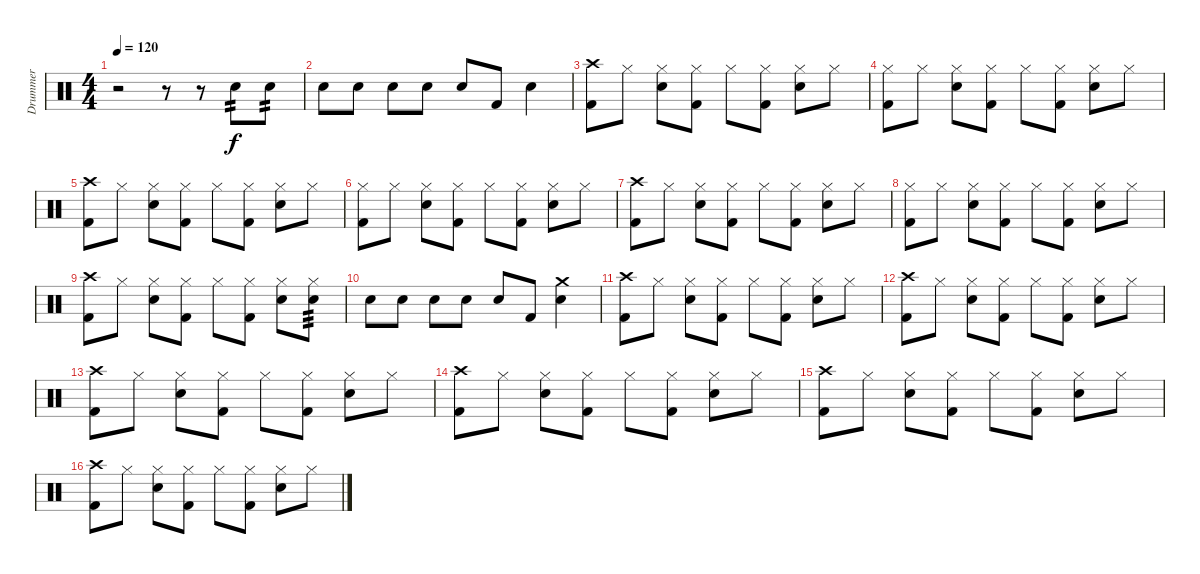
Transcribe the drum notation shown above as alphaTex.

\track ("Drummer" "Drummer") {instrument percussion}
\staff {score}
\articulation defaults
\ts (4 4)
\tempo 120
\clef neutral
\ks c
r.2{dy f} r.8 r.8 "Electric Snare (hit)".8{tp 2} "Electric Snare (hit)".8{tp 2} |
"Electric Snare (hit)".8 "Electric Snare (hit)".8 "Electric Snare (hit)".8 "Electric Snare (hit)".8 "Electric Snare (hit)".8 "Kick (hit) 2".8 "Electric Snare (hit)".4 |
("Kick (hit) 2" "Crash high (hit)").8 "Hi-Hat (closed)".8 ("Electric Snare (hit)" "Hi-Hat (closed)").8 ("Kick (hit) 2" "Hi-Hat (closed)").8 "Hi-Hat (closed)".8 ("Kick (hit) 2" "Hi-Hat (closed)").8 ("Electric Snare (hit)" "Hi-Hat (closed)").8 "Hi-Hat (closed)".8 |
("Kick (hit) 2" "Hi-Hat (closed)").8 "Hi-Hat (closed)".8 ("Electric Snare (hit)" "Hi-Hat (closed)").8 ("Kick (hit) 2" "Hi-Hat (closed)").8 "Hi-Hat (closed)".8 ("Kick (hit) 2" "Hi-Hat (closed)").8 ("Electric Snare (hit)" "Hi-Hat (closed)").8 "Hi-Hat (closed)".8 |
("Kick (hit) 2" "Crash high (hit)").8 "Hi-Hat (closed)".8 ("Electric Snare (hit)" "Hi-Hat (closed)").8 ("Kick (hit) 2" "Hi-Hat (closed)").8 "Hi-Hat (closed)".8 ("Kick (hit) 2" "Hi-Hat (closed)").8 ("Electric Snare (hit)" "Hi-Hat (closed)").8 "Hi-Hat (closed)".8 |
("Kick (hit) 2" "Hi-Hat (closed)").8 "Hi-Hat (closed)".8 ("Electric Snare (hit)" "Hi-Hat (closed)").8 ("Kick (hit) 2" "Hi-Hat (closed)").8 "Hi-Hat (closed)".8 ("Kick (hit) 2" "Hi-Hat (closed)").8 ("Electric Snare (hit)" "Hi-Hat (closed)").8 "Hi-Hat (closed)".8 |
("Kick (hit) 2" "Crash high (hit)").8 "Hi-Hat (closed)".8 ("Electric Snare (hit)" "Hi-Hat (closed)").8 ("Kick (hit) 2" "Hi-Hat (closed)").8 "Hi-Hat (closed)".8 ("Kick (hit) 2" "Hi-Hat (closed)").8 ("Electric Snare (hit)" "Hi-Hat (closed)").8 "Hi-Hat (closed)".8 |
("Kick (hit) 2" "Hi-Hat (closed)").8 "Hi-Hat (closed)".8 ("Electric Snare (hit)" "Hi-Hat (closed)").8 ("Kick (hit) 2" "Hi-Hat (closed)").8 "Hi-Hat (closed)".8 ("Kick (hit) 2" "Hi-Hat (closed)").8 ("Electric Snare (hit)" "Hi-Hat (closed)").8 "Hi-Hat (closed)".8 |
("Kick (hit) 2" "Crash high (hit)").8 "Hi-Hat (closed)".8 ("Electric Snare (hit)" "Hi-Hat (closed)").8 ("Kick (hit) 2" "Hi-Hat (closed)").8 "Hi-Hat (closed)".8 ("Kick (hit) 2" "Hi-Hat (closed)").8 ("Electric Snare (hit)" "Hi-Hat (closed)").8 ("Electric Snare (hit)" "Hi-Hat (closed)").8{tp 3} |
"Electric Snare (hit)".8 "Electric Snare (hit)".8 "Electric Snare (hit)".8 "Electric Snare (hit)".8 "Electric Snare (hit)".8 "Kick (hit) 2".8 ("Electric Snare (hit)" "Crash medium (hit)").4 |
("Kick (hit) 2" "Crash high (hit)").8 "Hi-Hat (closed)".8 ("Electric Snare (hit)" "Hi-Hat (closed)").8 ("Kick (hit) 2" "Hi-Hat (closed)").8 "Hi-Hat (closed)".8 ("Kick (hit) 2" "Hi-Hat (closed)").8 ("Electric Snare (hit)" "Hi-Hat (closed)").8 "Hi-Hat (closed)".8 |
("Kick (hit) 2" "Crash high (hit)").8 "Hi-Hat (closed)".8 ("Electric Snare (hit)" "Hi-Hat (closed)").8 ("Kick (hit) 2" "Hi-Hat (closed)").8 "Hi-Hat (closed)".8 ("Kick (hit) 2" "Hi-Hat (closed)").8 ("Electric Snare (hit)" "Hi-Hat (closed)").8 "Hi-Hat (closed)".8 |
("Kick (hit) 2" "Crash high (hit)").8 "Hi-Hat (closed)".8 ("Electric Snare (hit)" "Hi-Hat (closed)").8 ("Kick (hit) 2" "Hi-Hat (closed)").8 "Hi-Hat (closed)".8 ("Kick (hit) 2" "Hi-Hat (closed)").8 ("Electric Snare (hit)" "Hi-Hat (closed)").8 "Hi-Hat (closed)".8 |
("Kick (hit) 2" "Crash high (hit)").8 "Hi-Hat (closed)".8 ("Electric Snare (hit)" "Hi-Hat (closed)").8 ("Kick (hit) 2" "Hi-Hat (closed)").8 "Hi-Hat (closed)".8 ("Kick (hit) 2" "Hi-Hat (closed)").8 ("Electric Snare (hit)" "Hi-Hat (closed)").8 "Hi-Hat (closed)".8 |
("Kick (hit) 2" "Crash high (hit)").8 "Hi-Hat (closed)".8 ("Electric Snare (hit)" "Hi-Hat (closed)").8 ("Kick (hit) 2" "Hi-Hat (closed)").8 "Hi-Hat (closed)".8 ("Kick (hit) 2" "Hi-Hat (closed)").8 ("Electric Snare (hit)" "Hi-Hat (closed)").8 "Hi-Hat (closed)".8 |
("Kick (hit) 2" "Crash high (hit)").8 "Hi-Hat (closed)".8 ("Electric Snare (hit)" "Hi-Hat (closed)").8 ("Kick (hit) 2" "Hi-Hat (closed)").8 "Hi-Hat (closed)".8 ("Kick (hit) 2" "Hi-Hat (closed)").8 ("Electric Snare (hit)" "Hi-Hat (closed)").8 "Hi-Hat (closed)".8
